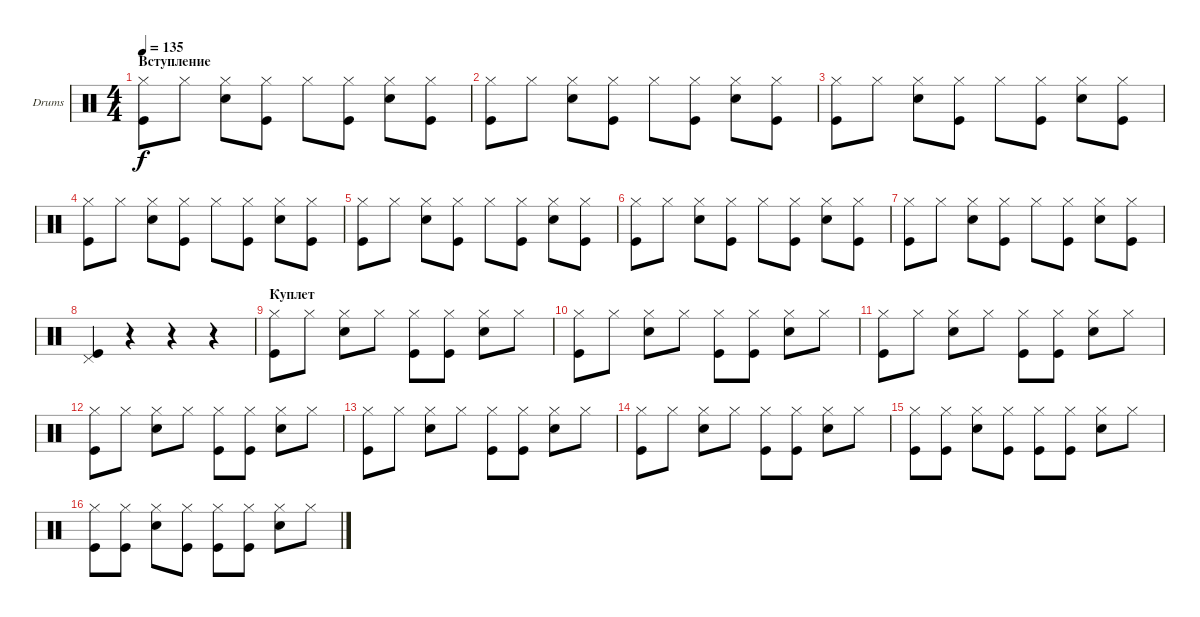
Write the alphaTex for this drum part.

\defaultSystemsLayout 4
\bracketExtendMode groupsimilarinstruments
\firstSystemTrackNameOrientation horizontal
\otherSystemsTrackNameOrientation horizontal
\track ("Drumkit" "Drums") {instrument percussion}
\staff {score}
\articulation defaults
\ts (4 4)
\section ("" "Вступление")
\tempo 135
\clef neutral
\ks c
("Hi-Hat (closed)" "Kick (hit)").8{dy f} "Hi-Hat (closed)".8 ("Hi-Hat (closed)" "Snare (hit) 2").8 ("Hi-Hat (closed)" "Kick (hit)").8 "Hi-Hat (closed)".8 ("Hi-Hat (closed)" "Kick (hit)").8 ("Hi-Hat (closed)" "Snare (hit) 2").8 ("Hi-Hat (closed)" "Kick (hit)").8 |
("Hi-Hat (closed)" "Kick (hit)").8 "Hi-Hat (closed)".8 ("Hi-Hat (closed)" "Snare (hit) 2").8 ("Hi-Hat (closed)" "Kick (hit)").8 "Hi-Hat (closed)".8 ("Hi-Hat (closed)" "Kick (hit)").8 ("Hi-Hat (closed)" "Snare (hit) 2").8 ("Hi-Hat (closed)" "Kick (hit)").8 |
("Hi-Hat (closed)" "Kick (hit)").8 "Hi-Hat (closed)".8 ("Hi-Hat (closed)" "Snare (hit) 2").8 ("Hi-Hat (closed)" "Kick (hit)").8 "Hi-Hat (closed)".8 ("Hi-Hat (closed)" "Kick (hit)").8 ("Hi-Hat (closed)" "Snare (hit) 2").8 ("Hi-Hat (closed)" "Kick (hit)").8 |
("Hi-Hat (closed)" "Kick (hit)").8 "Hi-Hat (closed)".8 ("Hi-Hat (closed)" "Snare (hit) 2").8 ("Hi-Hat (closed)" "Kick (hit)").8 "Hi-Hat (closed)".8 ("Hi-Hat (closed)" "Kick (hit)").8 ("Hi-Hat (closed)" "Snare (hit) 2").8 ("Hi-Hat (closed)" "Kick (hit)").8 |
("Hi-Hat (closed)" "Kick (hit)").8 "Hi-Hat (closed)".8 ("Hi-Hat (closed)" "Snare (hit) 2").8 ("Hi-Hat (closed)" "Kick (hit)").8 "Hi-Hat (closed)".8 ("Hi-Hat (closed)" "Kick (hit)").8 ("Hi-Hat (closed)" "Snare (hit) 2").8 ("Hi-Hat (closed)" "Kick (hit)").8 |
("Hi-Hat (closed)" "Kick (hit)").8 "Hi-Hat (closed)".8 ("Hi-Hat (closed)" "Snare (hit) 2").8 ("Hi-Hat (closed)" "Kick (hit)").8 "Hi-Hat (closed)".8 ("Hi-Hat (closed)" "Kick (hit)").8 ("Hi-Hat (closed)" "Snare (hit) 2").8 ("Hi-Hat (closed)" "Kick (hit)").8 |
("Hi-Hat (closed)" "Kick (hit)").8 "Hi-Hat (closed)".8 ("Hi-Hat (closed)" "Snare (hit) 2").8 ("Hi-Hat (closed)" "Kick (hit)").8 "Hi-Hat (closed)".8 ("Hi-Hat (closed)" "Kick (hit)").8 ("Hi-Hat (closed)" "Snare (hit) 2").8 ("Hi-Hat (closed)" "Kick (hit)").8 |
("Kick (hit)" "Pedal Hi-Hat (hit)").4 r.4 r.4 r.4 |
\section ("" "Куплет")
("Hi-Hat (closed)" "Kick (hit)").8 "Hi-Hat (closed)".8 ("Hi-Hat (closed)" "Snare (hit) 2").8 "Hi-Hat (closed)".8 ("Hi-Hat (closed)" "Kick (hit)").8 ("Hi-Hat (closed)" "Kick (hit)").8 ("Hi-Hat (closed)" "Snare (hit) 2").8 "Hi-Hat (closed)".8 |
("Hi-Hat (closed)" "Kick (hit)").8 "Hi-Hat (closed)".8 ("Hi-Hat (closed)" "Snare (hit) 2").8 "Hi-Hat (closed)".8 ("Hi-Hat (closed)" "Kick (hit)").8 ("Hi-Hat (closed)" "Kick (hit)").8 ("Hi-Hat (closed)" "Snare (hit) 2").8 "Hi-Hat (closed)".8 |
("Hi-Hat (closed)" "Kick (hit)").8 "Hi-Hat (closed)".8 ("Hi-Hat (closed)" "Snare (hit) 2").8 "Hi-Hat (closed)".8 ("Hi-Hat (closed)" "Kick (hit)").8 ("Hi-Hat (closed)" "Kick (hit)").8 ("Hi-Hat (closed)" "Snare (hit) 2").8 "Hi-Hat (closed)".8 |
("Hi-Hat (closed)" "Kick (hit)").8 "Hi-Hat (closed)".8 ("Hi-Hat (closed)" "Snare (hit) 2").8 "Hi-Hat (closed)".8 ("Hi-Hat (closed)" "Kick (hit)").8 ("Hi-Hat (closed)" "Kick (hit)").8 ("Hi-Hat (closed)" "Snare (hit) 2").8 "Hi-Hat (closed)".8 |
("Hi-Hat (closed)" "Kick (hit)").8 "Hi-Hat (closed)".8 ("Hi-Hat (closed)" "Snare (hit) 2").8 "Hi-Hat (closed)".8 ("Hi-Hat (closed)" "Kick (hit)").8 ("Hi-Hat (closed)" "Kick (hit)").8 ("Hi-Hat (closed)" "Snare (hit) 2").8 "Hi-Hat (closed)".8 |
("Hi-Hat (closed)" "Kick (hit)").8 "Hi-Hat (closed)".8 ("Hi-Hat (closed)" "Snare (hit) 2").8 "Hi-Hat (closed)".8 ("Hi-Hat (closed)" "Kick (hit)").8 ("Hi-Hat (closed)" "Kick (hit)").8 ("Hi-Hat (closed)" "Snare (hit) 2").8 "Hi-Hat (closed)".8 |
("Hi-Hat (closed)" "Kick (hit)").8 ("Hi-Hat (closed)" "Kick (hit)").8 ("Hi-Hat (closed)" "Snare (hit) 2").8 ("Hi-Hat (closed)" "Kick (hit)").8 ("Hi-Hat (closed)" "Kick (hit)").8 ("Hi-Hat (closed)" "Kick (hit)").8 ("Hi-Hat (closed)" "Snare (hit) 2").8 "Hi-Hat (closed)".8 |
("Hi-Hat (closed)" "Kick (hit)").8 ("Hi-Hat (closed)" "Kick (hit)").8 ("Hi-Hat (closed)" "Snare (hit) 2").8 ("Hi-Hat (closed)" "Kick (hit)").8 ("Hi-Hat (closed)" "Kick (hit)").8 ("Hi-Hat (closed)" "Kick (hit)").8 ("Hi-Hat (closed)" "Snare (hit) 2").8 "Hi-Hat (closed)".8
